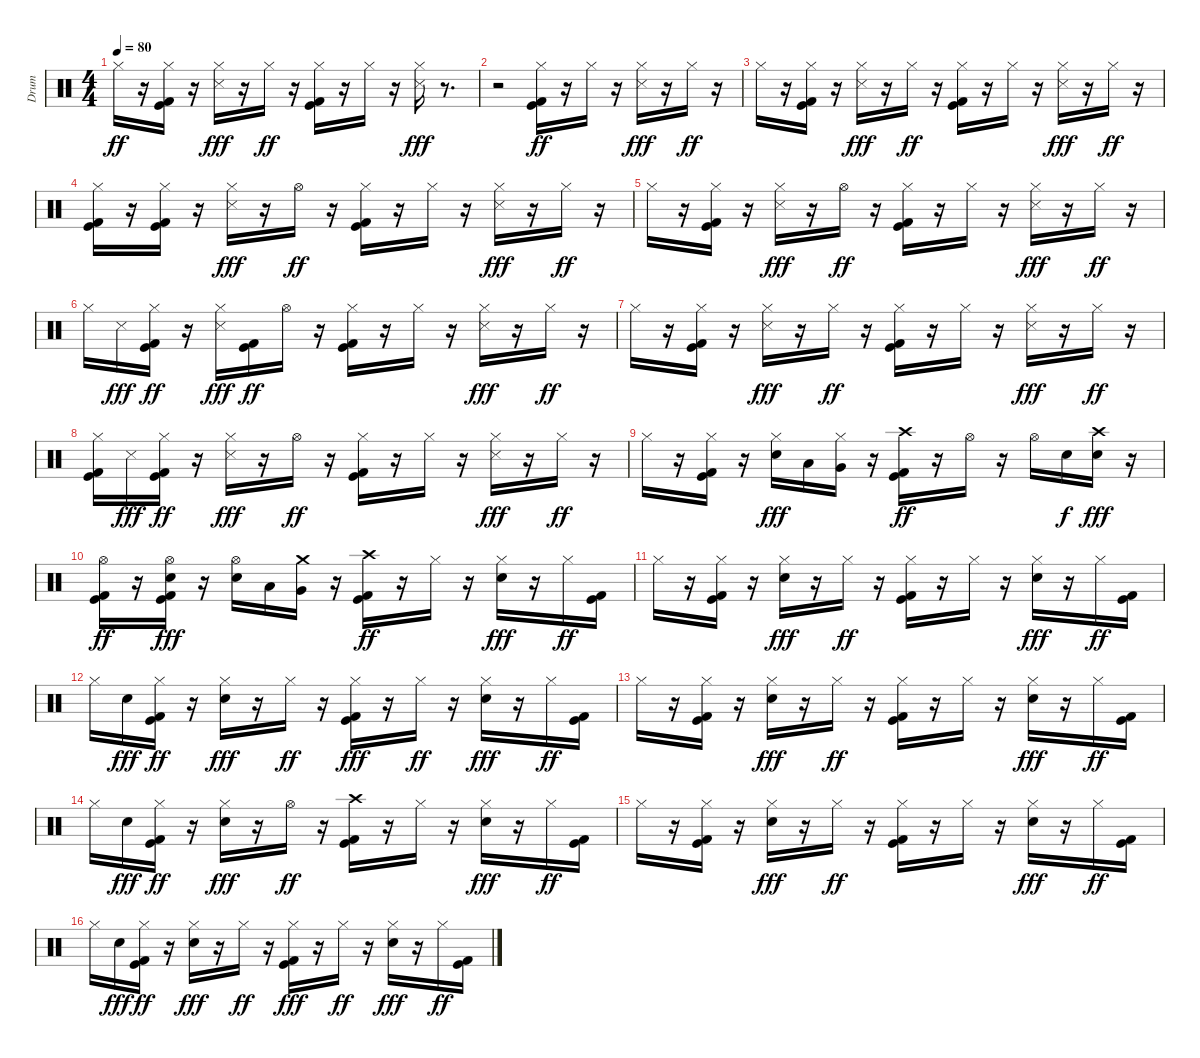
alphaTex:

\track ("Drum" "Drum") {instrument percussion}
\staff {score}
\articulation defaults
\ts (4 4)
\tempo 80
\clef neutral
\ks c "Hi-Hat (closed)".16{dy ff}
r.16 ("Kick (hit)" "Kick (hit) 2" "Hi-Hat (closed)").16 r.16 ("Hi-Hat (closed)" "Snare (side stick) 3").16{dy fff} r.16 "Hi-Hat (closed)".16{dy ff} r.16 ("Kick (hit)" "Kick (hit) 2" "Hi-Hat (closed)").16 r.16 "Hi-Hat (closed)".16 r.16 ("Hi-Hat (closed)" "Snare (side stick) 3").16{dy fff} r.8{d} |
r.2 ("Kick (hit)" "Kick (hit) 2" "Hi-Hat (closed)").16{dy ff} r.16 "Hi-Hat (closed)".16 r.16 ("Hi-Hat (closed)" "Snare (side stick) 3").16{dy fff} r.16 "Hi-Hat (closed)".16{dy ff} r.16 |
"Hi-Hat (closed)".16 r.16 ("Kick (hit)" "Kick (hit) 2" "Hi-Hat (closed)").16 r.16 ("Hi-Hat (closed)" "Snare (side stick) 3").16{dy fff} r.16 "Hi-Hat (closed)".16{dy ff} r.16 ("Kick (hit)" "Kick (hit) 2" "Hi-Hat (closed)").16 r.16 "Hi-Hat (closed)".16 r.16 ("Hi-Hat (closed)" "Snare (side stick) 3").16{dy fff} r.16 "Hi-Hat (closed)".16{dy ff} r.16 |
("Kick (hit)" "Kick (hit) 2" "Hi-Hat (closed)").16 r.16 ("Kick (hit)" "Kick (hit) 2" "Hi-Hat (closed)").16 r.16 ("Hi-Hat (closed)" "Snare (side stick) 3").16{dy fff} r.16 "Hi-Hat (open)".16{dy ff} r.16 ("Kick (hit)" "Kick (hit) 2" "Hi-Hat (closed)").16 r.16 "Hi-Hat (closed)".16 r.16 ("Hi-Hat (closed)" "Snare (side stick) 3").16{dy fff} r.16 "Hi-Hat (closed)".16{dy ff} r.16 |
"Hi-Hat (closed)".16 r.16 ("Kick (hit)" "Kick (hit) 2" "Hi-Hat (closed)").16 r.16 ("Hi-Hat (closed)" "Snare (side stick) 3").16{dy fff} r.16 "Hi-Hat (open)".16{dy ff} r.16 ("Kick (hit)" "Kick (hit) 2" "Hi-Hat (closed)").16 r.16 "Hi-Hat (closed)".16 r.16 ("Hi-Hat (closed)" "Snare (side stick) 3").16{dy fff} r.16 "Hi-Hat (closed)".16{dy ff} r.16 |
"Hi-Hat (closed)".16 "Snare (side stick) 3".16{dy fff} ("Kick (hit)" "Kick (hit) 2" "Hi-Hat (closed)").16{dy ff} r.16 ("Hi-Hat (closed)" "Snare (side stick) 3").16{dy fff} ("Kick (hit)" "Kick (hit) 2").16{dy ff} "Hi-Hat (open)".16 r.16 ("Kick (hit)" "Kick (hit) 2" "Hi-Hat (closed)").16 r.16 "Hi-Hat (closed)".16 r.16 ("Hi-Hat (closed)" "Snare (side stick) 3").16{dy fff} r.16 "Hi-Hat (closed)".16{dy ff} r.16 |
"Hi-Hat (closed)".16 r.16 ("Kick (hit)" "Kick (hit) 2" "Hi-Hat (closed)").16 r.16 ("Hi-Hat (closed)" "Snare (side stick) 3").16{dy fff} r.16 "Hi-Hat (closed)".16{dy ff} r.16 ("Kick (hit)" "Kick (hit) 2" "Hi-Hat (closed)").16 r.16 "Hi-Hat (closed)".16 r.16 ("Hi-Hat (closed)" "Snare (side stick) 3").16{dy fff} r.16 "Hi-Hat (closed)".16{dy ff} r.16 |
("Kick (hit)" "Kick (hit) 2" "Hi-Hat (closed)").16 "Snare (side stick) 3".16{dy fff} ("Kick (hit)" "Kick (hit) 2" "Hi-Hat (closed)").16{dy ff} r.16 ("Hi-Hat (closed)" "Snare (side stick) 3").16{dy fff} r.16 "Hi-Hat (open)".16{dy ff} r.16 ("Kick (hit)" "Kick (hit) 2" "Hi-Hat (closed)").16 r.16 "Hi-Hat (closed)".16 r.16 ("Hi-Hat (closed)" "Snare (side stick) 3").16{dy fff} r.16 "Hi-Hat (closed)".16{dy ff} r.16 |
"Hi-Hat (closed)".16 r.16 ("Kick (hit)" "Kick (hit) 2" "Hi-Hat (closed)").16 r.16 ("Hi-Hat (closed)" "Electric Snare (hit)").16{dy fff} "Low Tom (hit)".16 ("Hi-Hat (closed)" "Very Low Tom (hit)").16 r.16 ("Kick (hit)" "Kick (hit) 2" "Crash high (hit)").16{dy ff} r.16 "Hi-Hat (open)".16 r.16 "Hi-Hat (open)".16 "Electric Snare (hit)".16{dy f} ("Crash high (hit)" "Electric Snare (hit)").16{dy fff} r.16 |
("Kick (hit)" "Kick (hit) 2" "Hi-Hat (open)").16{dy ff} r.16 ("Kick (hit)" "Kick (hit) 2" "Hi-Hat (open)" "Electric Snare (hit)").16{dy fff} r.16 ("Hi-Hat (open)" "Electric Snare (hit)").16 "Low Tom (hit)".16 ("Crash medium (hit)" "Very Low Tom (hit)").16 r.16 ("Crash high (hit)" "Kick (hit)" "Kick (hit) 2").16{dy ff} r.16 "Hi-Hat (closed)".16 r.16 ("Hi-Hat (closed)" "Electric Snare (hit)").16{dy fff} r.16 "Hi-Hat (closed)".16{dy ff} ("Kick (hit)" "Kick (hit) 2").16 |
"Hi-Hat (closed)".16 r.16 ("Hi-Hat (closed)" "Kick (hit)" "Kick (hit) 2").16 r.16 ("Hi-Hat (closed)" "Electric Snare (hit)").16{dy fff} r.16 "Hi-Hat (closed)".16{dy ff} r.16 ("Hi-Hat (closed)" "Kick (hit)" "Kick (hit) 2").16 r.16 "Hi-Hat (closed)".16 r.16 ("Hi-Hat (closed)" "Electric Snare (hit)").16{dy fff} r.16 "Hi-Hat (closed)".16{dy ff} ("Kick (hit)" "Kick (hit) 2").16 |
"Hi-Hat (closed)".16 "Electric Snare (hit)".16{dy fff} ("Hi-Hat (closed)" "Kick (hit)" "Kick (hit) 2").16{dy ff} r.16 ("Hi-Hat (closed)" "Electric Snare (hit)").16{dy fff} r.16 "Hi-Hat (closed)".16{dy ff} r.16 ("Kick (hit)" "Kick (hit) 2" "Hi-Hat (closed)").16{dy fff} r.16 "Hi-Hat (closed)".16{dy ff} r.16 ("Hi-Hat (closed)" "Electric Snare (hit)").16{dy fff} r.16 "Hi-Hat (closed)".16{dy ff} ("Kick (hit)" "Kick (hit) 2").16 |
"Hi-Hat (closed)".16 r.16 ("Hi-Hat (closed)" "Kick (hit)" "Kick (hit) 2").16 r.16 ("Hi-Hat (closed)" "Electric Snare (hit)").16{dy fff} r.16 "Hi-Hat (closed)".16{dy ff} r.16 ("Hi-Hat (closed)" "Kick (hit)" "Kick (hit) 2").16 r.16 "Hi-Hat (closed)".16 r.16 ("Hi-Hat (closed)" "Electric Snare (hit)").16{dy fff} r.16 "Hi-Hat (closed)".16{dy ff} ("Kick (hit)" "Kick (hit) 2").16 |
"Hi-Hat (closed)".16 "Electric Snare (hit)".16{dy fff} ("Hi-Hat (closed)" "Kick (hit)" "Kick (hit) 2").16{dy ff} r.16 ("Hi-Hat (closed)" "Electric Snare (hit)").16{dy fff} r.16 "Hi-Hat (open)".16{dy ff} r.16 ("Crash high (hit)" "Kick (hit)" "Kick (hit) 2").16 r.16 "Hi-Hat (closed)".16 r.16 ("Hi-Hat (closed)" "Electric Snare (hit)").16{dy fff} r.16 "Hi-Hat (closed)".16{dy ff} ("Kick (hit)" "Kick (hit) 2").16 |
"Hi-Hat (closed)".16 r.16 ("Hi-Hat (closed)" "Kick (hit)" "Kick (hit) 2").16 r.16 ("Hi-Hat (closed)" "Electric Snare (hit)").16{dy fff} r.16 "Hi-Hat (closed)".16{dy ff} r.16 ("Hi-Hat (closed)" "Kick (hit)" "Kick (hit) 2").16 r.16 "Hi-Hat (closed)".16 r.16 ("Hi-Hat (closed)" "Electric Snare (hit)").16{dy fff} r.16 "Hi-Hat (closed)".16{dy ff} ("Kick (hit)" "Kick (hit) 2").16 |
"Hi-Hat (closed)".16 "Electric Snare (hit)".16{dy fff} ("Hi-Hat (closed)" "Kick (hit)" "Kick (hit) 2").16{dy ff} r.16 ("Hi-Hat (closed)" "Electric Snare (hit)").16{dy fff} r.16 "Hi-Hat (closed)".16{dy ff} r.16 ("Kick (hit)" "Kick (hit) 2" "Hi-Hat (closed)").16{dy fff} r.16 "Hi-Hat (closed)".16{dy ff} r.16 ("Hi-Hat (closed)" "Electric Snare (hit)").16{dy fff} r.16 "Hi-Hat (closed)".16{dy ff} ("Kick (hit)" "Kick (hit) 2").16
